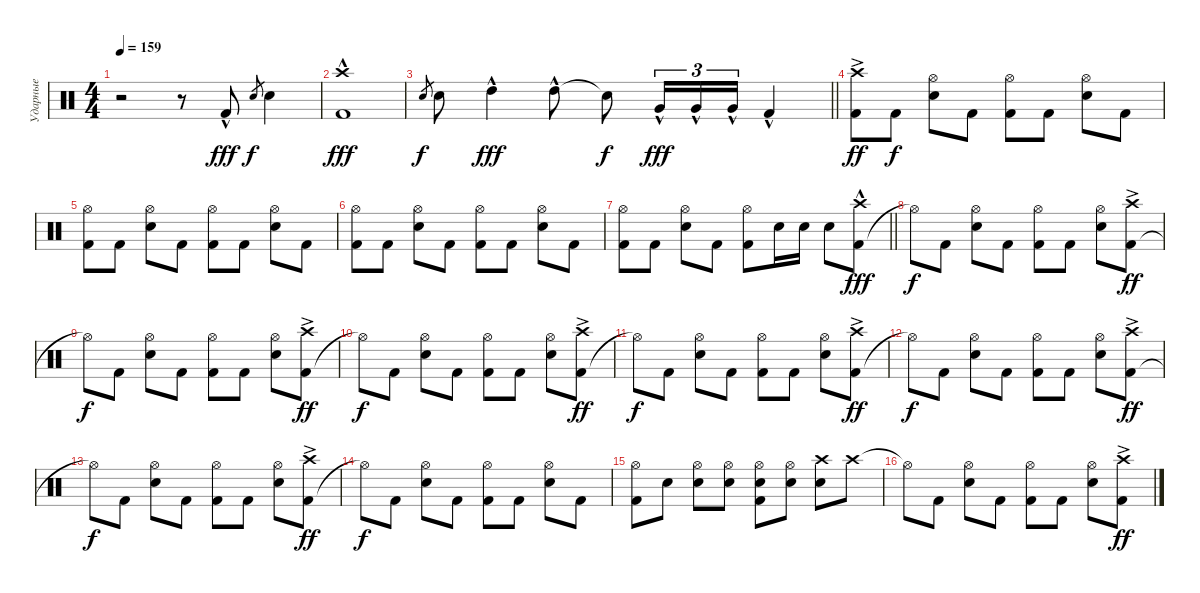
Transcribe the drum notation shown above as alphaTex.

\track ("Ударные" "Ударные") {instrument percussion}
\staff {score}
\articulation defaults
\ts (4 4)
\tempo 159
\clef neutral
\ks c
r.2{dy fff} r.8 "Kick (hit) 2"{hac}.8 "Snare (hit) 2".8{gr dy f} "Snare (hit) 2".4 |
("Kick (hit) 2" "Crash high (hit)"{hac}).1{dy fff} |
\barLineRight lightlight "Snare (hit) 2".8{gr dy f} "Snare (hit) 2".8 "High Tom (hit)"{hac}.4{dy fff} "High Tom (hit)"{hac}.8 "Snare (hit)"{t}.8{dy f} "Very Low Tom (hit)"{hac}.16{tu (3 2) dy fff} "Very Low Tom (hit)"{hac}.16{tu (3 2)} "Very Low Tom (hit)"{hac}.16{tu (3 2)} "Kick (hit) 2"{hac}.4
|
("Kick (hit) 2" "Crash high (hit)"{ac}).8{dy ff} "Kick (hit) 2".8{dy f} ("Snare (hit) 2" "Hi-Hat (open)").8 "Kick (hit) 2".8 ("Kick (hit) 2" "Hi-Hat (open)").8 "Kick (hit) 2".8 ("Snare (hit) 2" "Hi-Hat (open)").8 "Kick (hit) 2".8 |
("Kick (hit) 2" "Hi-Hat (open)").8 "Kick (hit) 2".8 ("Snare (hit) 2" "Hi-Hat (open)").8 "Kick (hit) 2".8 ("Kick (hit) 2" "Hi-Hat (open)").8 "Kick (hit) 2".8 ("Snare (hit) 2" "Hi-Hat (open)").8 "Kick (hit) 2".8 |
("Kick (hit) 2" "Hi-Hat (open)").8 "Kick (hit) 2".8 ("Snare (hit) 2" "Hi-Hat (open)").8 "Kick (hit) 2".8 ("Kick (hit) 2" "Hi-Hat (open)").8 "Kick (hit) 2".8 ("Snare (hit) 2" "Hi-Hat (open)").8 "Kick (hit) 2".8 |
\barLineRight lightlight
("Kick (hit) 2" "Hi-Hat (open)").8 "Kick (hit) 2".8 ("Snare (hit) 2" "Hi-Hat (open)").8 "Kick (hit) 2".8 ("Kick (hit) 2" "Hi-Hat (open)").8 "Snare (hit) 2".16 "Snare (hit) 2".16 "Snare (hit) 2".8 ("Kick (hit) 2" "Crash high (hit)"{hac}).8{dy fff} |
"Hi-Hat (open)"{t}.8{dy f} "Kick (hit) 2".8 ("Snare (hit) 2" "Hi-Hat (open)").8 "Kick (hit) 2".8 ("Kick (hit) 2" "Hi-Hat (open)").8 "Kick (hit) 2".8 ("Snare (hit) 2" "Hi-Hat (open)").8 ("Kick (hit) 2" "Crash high (hit)"{ac}).8{dy ff} |
"Hi-Hat (open)"{t}.8{dy f} "Kick (hit) 2".8 ("Snare (hit) 2" "Hi-Hat (open)").8 "Kick (hit) 2".8 ("Kick (hit) 2" "Hi-Hat (open)").8 "Kick (hit) 2".8 ("Snare (hit) 2" "Hi-Hat (open)").8 ("Kick (hit) 2" "Crash high (hit)"{ac}).8{dy ff} |
"Hi-Hat (open)"{t}.8{dy f} "Kick (hit) 2".8 ("Snare (hit) 2" "Hi-Hat (open)").8 "Kick (hit) 2".8 ("Kick (hit) 2" "Hi-Hat (open)").8 "Kick (hit) 2".8 ("Snare (hit) 2" "Hi-Hat (open)").8 ("Kick (hit) 2" "Crash high (hit)"{ac}).8{dy ff} |
"Hi-Hat (open)"{t}.8{dy f} "Kick (hit) 2".8 ("Snare (hit) 2" "Hi-Hat (open)").8 "Kick (hit) 2".8 ("Kick (hit) 2" "Hi-Hat (open)").8 "Kick (hit) 2".8 ("Snare (hit) 2" "Hi-Hat (open)").8 ("Kick (hit) 2" "Crash high (hit)"{ac}).8{dy ff} |
"Hi-Hat (open)"{t}.8{dy f} "Kick (hit) 2".8 ("Snare (hit) 2" "Hi-Hat (open)").8 "Kick (hit) 2".8 ("Kick (hit) 2" "Hi-Hat (open)").8 "Kick (hit) 2".8 ("Snare (hit) 2" "Hi-Hat (open)").8 ("Kick (hit) 2" "Crash high (hit)"{ac}).8{dy ff} |
"Hi-Hat (open)"{t}.8{dy f} "Kick (hit) 2".8 ("Snare (hit) 2" "Hi-Hat (open)").8 "Kick (hit) 2".8 ("Kick (hit) 2" "Hi-Hat (open)").8 "Kick (hit) 2".8 ("Snare (hit) 2" "Hi-Hat (open)").8 ("Kick (hit) 2" "Crash high (hit)"{ac}).8{dy ff} |
"Hi-Hat (open)"{t}.8{dy f} "Kick (hit) 2".8 ("Snare (hit) 2" "Hi-Hat (open)").8 "Kick (hit) 2".8 ("Kick (hit) 2" "Hi-Hat (open)").8 "Kick (hit) 2".8 ("Snare (hit) 2" "Hi-Hat (open)").8 "Kick (hit) 2".8 |
("Kick (hit) 2" "Hi-Hat (open)").8 "Snare (hit) 2".8 ("Snare (hit) 2" "Hi-Hat (open)").8 ("Snare (hit) 2" "Hi-Hat (open)").8 ("Kick (hit) 2" "Snare (hit) 2" "Hi-Hat (open)").8 ("Snare (hit) 2" "Hi-Hat (open)").8 ("Snare (hit) 2" "Crash high (hit)").8 "Crash high (hit)".8 |
"Hi-Hat (open)"{t}.8 "Kick (hit) 2".8 ("Snare (hit) 2" "Hi-Hat (open)").8 "Kick (hit) 2".8 ("Kick (hit) 2" "Hi-Hat (open)").8 "Kick (hit) 2".8 ("Snare (hit) 2" "Hi-Hat (open)").8 ("Kick (hit) 2" "Crash high (hit)"{ac}).8{dy ff}
